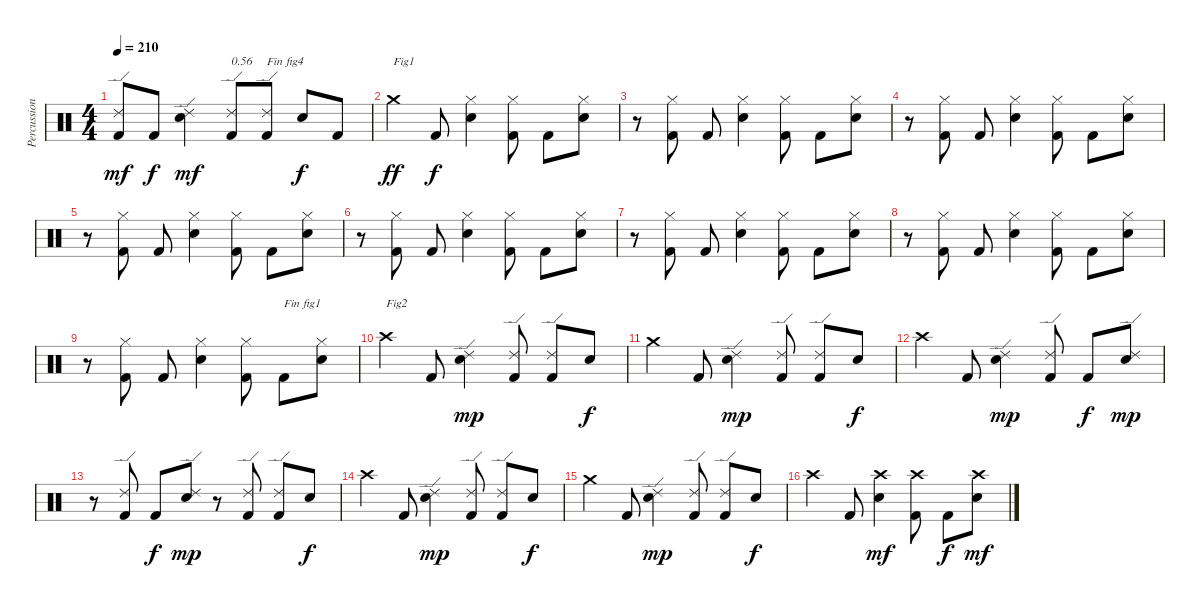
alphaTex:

\track ("Percussions" "Percussion") {instrument percussion}
\staff {score}
\articulation defaults
\ts (4 4)
\tempo 210
\clef neutral
\ks c
("Kick (hit) 2" "Ride (edge) 2").8{dy mf} "Kick (hit) 2".8{dy f} ("Electric Snare (hit)" "Ride (edge) 2").4{dy mf} ("Kick (hit) 2" "Ride (edge) 2").8{txt "0.56"} ("Kick (hit) 2" "Ride (edge) 2").8{txt "Fin fig4"} "Electric Snare (hit)".8{dy f} "Kick (hit) 2".8 |
"Crash medium (hit)".4{txt "Fig1" dy ff} "Kick (hit) 2".8{dy f} ("Electric Snare (hit)" "Hi-Hat (closed)").4 ("Kick (hit) 2" "Hi-Hat (closed)").8 "Kick (hit) 2".8 ("Electric Snare (hit)" "Hi-Hat (closed)").8 |
r.8 ("Kick (hit) 2" "Hi-Hat (closed)").8 "Kick (hit) 2".8 ("Electric Snare (hit)" "Hi-Hat (closed)").4 ("Kick (hit) 2" "Hi-Hat (closed)").8 "Kick (hit) 2".8 ("Electric Snare (hit)" "Hi-Hat (closed)").8 |
r.8 ("Kick (hit) 2" "Hi-Hat (closed)").8 "Kick (hit) 2".8 ("Electric Snare (hit)" "Hi-Hat (closed)").4 ("Kick (hit) 2" "Hi-Hat (closed)").8 "Kick (hit) 2".8 ("Electric Snare (hit)" "Hi-Hat (closed)").8 |
r.8 ("Kick (hit) 2" "Hi-Hat (closed)").8 "Kick (hit) 2".8 ("Electric Snare (hit)" "Hi-Hat (closed)").4 ("Kick (hit) 2" "Hi-Hat (closed)").8 "Kick (hit) 2".8 ("Electric Snare (hit)" "Hi-Hat (closed)").8 |
r.8 ("Kick (hit) 2" "Hi-Hat (closed)").8 "Kick (hit) 2".8 ("Electric Snare (hit)" "Hi-Hat (closed)").4 ("Kick (hit) 2" "Hi-Hat (closed)").8 "Kick (hit) 2".8 ("Electric Snare (hit)" "Hi-Hat (closed)").8 |
r.8 ("Kick (hit) 2" "Hi-Hat (closed)").8 "Kick (hit) 2".8 ("Electric Snare (hit)" "Hi-Hat (closed)").4 ("Kick (hit) 2" "Hi-Hat (closed)").8 "Kick (hit) 2".8 ("Electric Snare (hit)" "Hi-Hat (closed)").8 |
r.8 ("Kick (hit) 2" "Hi-Hat (closed)").8 "Kick (hit) 2".8 ("Electric Snare (hit)" "Hi-Hat (closed)").4 ("Kick (hit) 2" "Hi-Hat (closed)").8 "Kick (hit) 2".8 ("Electric Snare (hit)" "Hi-Hat (closed)").8 |
r.8 ("Kick (hit) 2" "Hi-Hat (closed)").8 "Kick (hit) 2".8 ("Electric Snare (hit)" "Hi-Hat (closed)").4 ("Kick (hit) 2" "Hi-Hat (closed)").8 "Kick (hit) 2".8{txt "Fin fig1"} ("Electric Snare (hit)" "Hi-Hat (closed)").8 |
"Crash high (hit)".4{txt "Fig2"} "Kick (hit) 2".8 ("Electric Snare (hit)" "Ride (edge) 2").4{dy mp} ("Kick (hit) 2" "Ride (edge) 2").8 ("Kick (hit) 2" "Ride (edge) 2").8 "Electric Snare (hit)".8{dy f} |
"Crash medium (hit)".4 "Kick (hit) 2".8 ("Electric Snare (hit)" "Ride (edge) 2").4{dy mp} ("Kick (hit) 2" "Ride (edge) 2").8 ("Kick (hit) 2" "Ride (edge) 2").8 "Electric Snare (hit)".8{dy f} |
"Crash high (hit)".4 "Kick (hit) 2".8 ("Electric Snare (hit)" "Ride (edge) 2").4{dy mp} ("Kick (hit) 2" "Ride (edge) 2").8 "Kick (hit) 2".8{dy f} ("Electric Snare (hit)" "Ride (edge) 2").8{dy mp} |
r.8 ("Kick (hit) 2" "Ride (edge) 2").8 "Kick (hit) 2".8{dy f} ("Electric Snare (hit)" "Ride (edge) 2").8{dy mp} r.8 ("Kick (hit) 2" "Ride (edge) 2").8 ("Kick (hit) 2" "Ride (edge) 2").8 "Electric Snare (hit)".8{dy f} |
"Crash high (hit)".4 "Kick (hit) 2".8 ("Electric Snare (hit)" "Ride (edge) 2").4{dy mp} ("Kick (hit) 2" "Ride (edge) 2").8 ("Kick (hit) 2" "Ride (edge) 2").8 "Electric Snare (hit)".8{dy f} |
"Crash medium (hit)".4 "Kick (hit) 2".8 ("Electric Snare (hit)" "Ride (edge) 2").4{dy mp} ("Kick (hit) 2" "Ride (edge) 2").8 ("Kick (hit) 2" "Ride (edge) 2").8 "Electric Snare (hit)".8{dy f} |
"Crash high (hit)".4 "Kick (hit) 2".8 ("Electric Snare (hit)" "Crash high (hit)").4{dy mf} ("Kick (hit) 2" "Crash high (hit)").8 "Kick (hit) 2".8{dy f} ("Electric Snare (hit)" "Crash high (hit)").8{dy mf}
